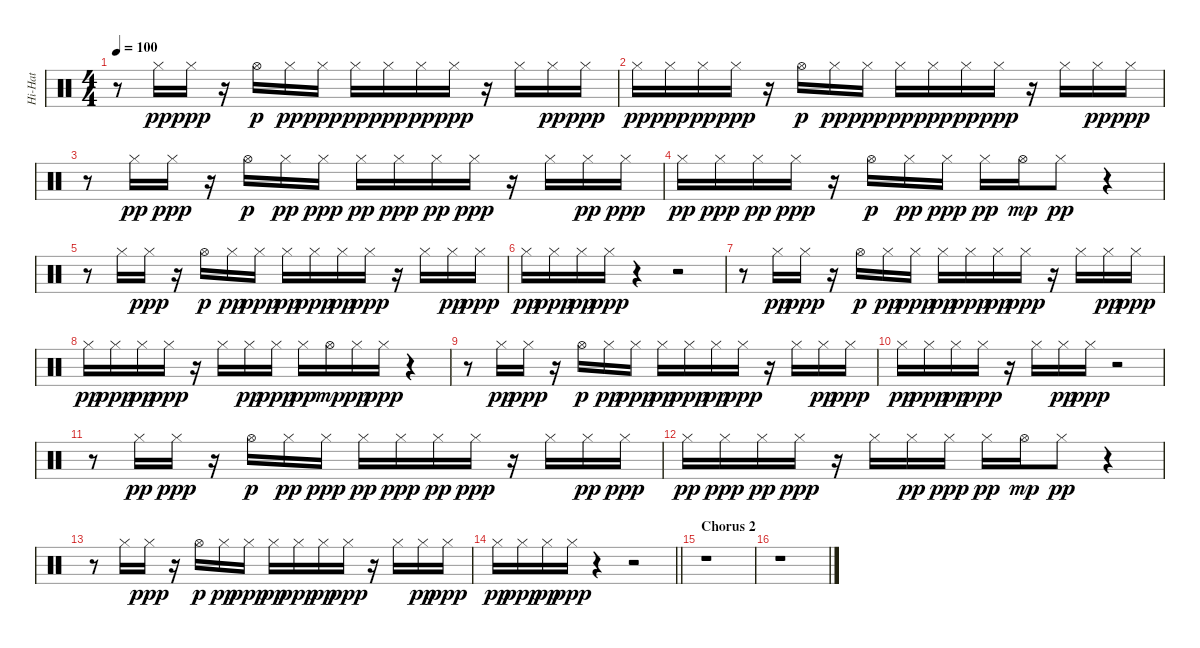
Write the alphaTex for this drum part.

\track ("Hi-Hat" "Hi-Hat") {instrument percussion}
\staff {score}
\articulation defaults
\ts (4 4)
\tempo 100
\clef neutral
\ks c
r.8{dy ppp} "Hi-Hat (closed)".16{dy pp} "Hi-Hat (closed)".16{dy ppp} r.16 "Hi-Hat (open)".16{dy p} "Hi-Hat (closed)".16{dy pp} "Hi-Hat (closed)".16{dy ppp} "Hi-Hat (closed)".16{dy pp} "Hi-Hat (closed)".16{dy ppp} "Hi-Hat (closed)".16{dy pp} "Hi-Hat (closed)".16{dy ppp} r.16 "Hi-Hat (closed)".16 "Hi-Hat (closed)".16{dy pp} "Hi-Hat (closed)".16{dy ppp} |
"Hi-Hat (closed)".16{dy pp} "Hi-Hat (closed)".16{dy ppp} "Hi-Hat (closed)".16{dy pp} "Hi-Hat (closed)".16{dy ppp} r.16 "Hi-Hat (open)".16{dy p} "Hi-Hat (closed)".16{dy pp} "Hi-Hat (closed)".16{dy ppp} "Hi-Hat (closed)".16{dy pp} "Hi-Hat (closed)".16{dy ppp} "Hi-Hat (closed)".16{dy pp} "Hi-Hat (closed)".16{dy ppp} r.16 "Hi-Hat (closed)".16 "Hi-Hat (closed)".16{dy pp} "Hi-Hat (closed)".16{dy ppp} |
r.8 "Hi-Hat (closed)".16{dy pp} "Hi-Hat (closed)".16{dy ppp} r.16 "Hi-Hat (open)".16{dy p} "Hi-Hat (closed)".16{dy pp} "Hi-Hat (closed)".16{dy ppp} "Hi-Hat (closed)".16{dy pp} "Hi-Hat (closed)".16{dy ppp} "Hi-Hat (closed)".16{dy pp} "Hi-Hat (closed)".16{dy ppp} r.16 "Hi-Hat (closed)".16 "Hi-Hat (closed)".16{dy pp} "Hi-Hat (closed)".16{dy ppp} |
"Hi-Hat (closed)".16{dy pp} "Hi-Hat (closed)".16{dy ppp} "Hi-Hat (closed)".16{dy pp} "Hi-Hat (closed)".16{dy ppp} r.16 "Hi-Hat (open)".16{dy p} "Hi-Hat (closed)".16{dy pp} "Hi-Hat (closed)".16{dy ppp} "Hi-Hat (closed)".16{dy pp} "Hi-Hat (open)".16{dy mp} "Hi-Hat (closed)".8{dy pp} r.4 |
r.8 "Hi-Hat (closed)".16 "Hi-Hat (closed)".16{dy ppp} r.16 "Hi-Hat (open)".16{dy p} "Hi-Hat (closed)".16{dy pp} "Hi-Hat (closed)".16{dy ppp} "Hi-Hat (closed)".16{dy pp} "Hi-Hat (closed)".16{dy ppp} "Hi-Hat (closed)".16{dy pp} "Hi-Hat (closed)".16{dy ppp} r.16 "Hi-Hat (closed)".16 "Hi-Hat (closed)".16{dy pp} "Hi-Hat (closed)".16{dy ppp} |
"Hi-Hat (closed)".16{dy pp} "Hi-Hat (closed)".16{dy ppp} "Hi-Hat (closed)".16{dy pp} "Hi-Hat (closed)".16{dy ppp} r.4 r.2 |
r.8 "Hi-Hat (closed)".16{dy pp} "Hi-Hat (closed)".16{dy ppp} r.16 "Hi-Hat (open)".16{dy p} "Hi-Hat (closed)".16{dy pp} "Hi-Hat (closed)".16{dy ppp} "Hi-Hat (closed)".16{dy pp} "Hi-Hat (closed)".16{dy ppp} "Hi-Hat (closed)".16{dy pp} "Hi-Hat (closed)".16{dy ppp} r.16 "Hi-Hat (closed)".16 "Hi-Hat (closed)".16{dy pp} "Hi-Hat (closed)".16{dy ppp} |
"Hi-Hat (closed)".16{dy pp} "Hi-Hat (closed)".16{dy ppp} "Hi-Hat (closed)".16{dy pp} "Hi-Hat (closed)".16{dy ppp} r.16 "Hi-Hat (closed)".16 "Hi-Hat (closed)".16{dy pp} "Hi-Hat (closed)".16{dy ppp} "Hi-Hat (closed)".16{dy pp} "Hi-Hat (open)".16{dy mp} "Hi-Hat (closed)".16{dy pp} "Hi-Hat (closed)".16{dy ppp} r.4 |
r.8 "Hi-Hat (closed)".16{dy pp} "Hi-Hat (closed)".16{dy ppp} r.16 "Hi-Hat (open)".16{dy p} "Hi-Hat (closed)".16{dy pp} "Hi-Hat (closed)".16{dy ppp} "Hi-Hat (closed)".16{dy pp} "Hi-Hat (closed)".16{dy ppp} "Hi-Hat (closed)".16{dy pp} "Hi-Hat (closed)".16{dy ppp} r.16 "Hi-Hat (closed)".16 "Hi-Hat (closed)".16{dy pp} "Hi-Hat (closed)".16{dy ppp} |
"Hi-Hat (closed)".16{dy pp} "Hi-Hat (closed)".16{dy ppp} "Hi-Hat (closed)".16{dy pp} "Hi-Hat (closed)".16{dy ppp} r.16 "Hi-Hat (closed)".16 "Hi-Hat (closed)".16{dy pp} "Hi-Hat (closed)".16{dy ppp} r.2 |
r.8 "Hi-Hat (closed)".16{dy pp} "Hi-Hat (closed)".16{dy ppp} r.16 "Hi-Hat (open)".16{dy p} "Hi-Hat (closed)".16{dy pp} "Hi-Hat (closed)".16{dy ppp} "Hi-Hat (closed)".16{dy pp} "Hi-Hat (closed)".16{dy ppp} "Hi-Hat (closed)".16{dy pp} "Hi-Hat (closed)".16{dy ppp} r.16 "Hi-Hat (closed)".16 "Hi-Hat (closed)".16{dy pp} "Hi-Hat (closed)".16{dy ppp} |
"Hi-Hat (closed)".16{dy pp} "Hi-Hat (closed)".16{dy ppp} "Hi-Hat (closed)".16{dy pp} "Hi-Hat (closed)".16{dy ppp} r.16 "Hi-Hat (closed)".16 "Hi-Hat (closed)".16{dy pp} "Hi-Hat (closed)".16{dy ppp} "Hi-Hat (closed)".16{dy pp} "Hi-Hat (open)".16{dy mp} "Hi-Hat (closed)".8{dy pp} r.4 |
r.8 "Hi-Hat (closed)".16 "Hi-Hat (closed)".16{dy ppp} r.16 "Hi-Hat (open)".16{dy p} "Hi-Hat (closed)".16{dy pp} "Hi-Hat (closed)".16{dy ppp} "Hi-Hat (closed)".16{dy pp} "Hi-Hat (closed)".16{dy ppp} "Hi-Hat (closed)".16{dy pp} "Hi-Hat (closed)".16{dy ppp} r.16 "Hi-Hat (closed)".16 "Hi-Hat (closed)".16{dy pp} "Hi-Hat (closed)".16{dy ppp} |
\barLineRight lightlight "Hi-Hat (closed)".16{dy pp} "Hi-Hat (closed)".16{dy ppp} "Hi-Hat (closed)".16{dy pp} "Hi-Hat (closed)".16{dy ppp}
r.4 r.2 |
\section ("" "Chorus 2")
r.1 |
r.1
